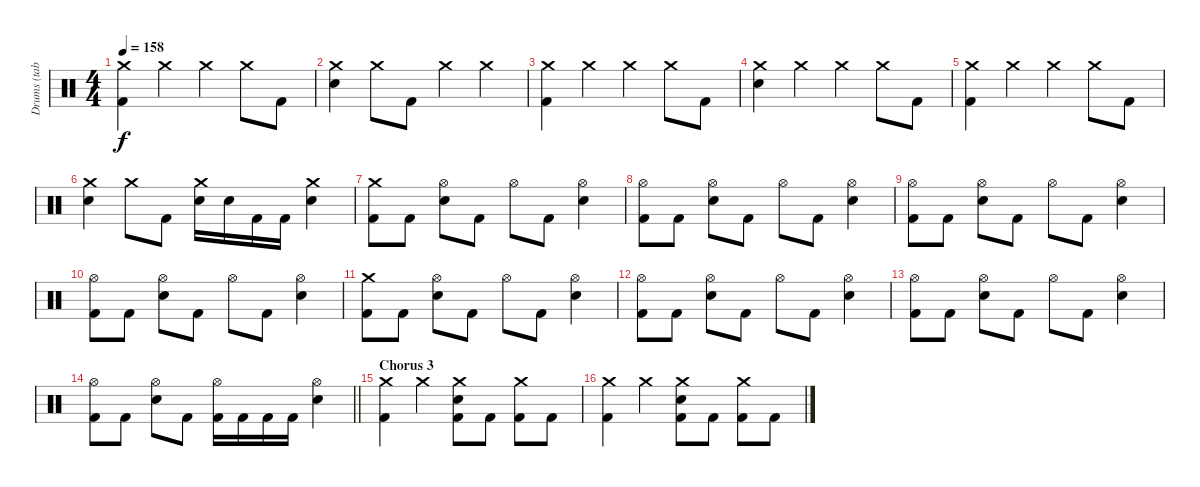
\track ("Drums (tabbed by bassman213293)" "Drums (tab") {instrument percussion}
\staff {score}
\articulation defaults
\ts (4 4)
\tempo 158
\clef neutral
\ks c
("Crash medium (hit)" "Kick (hit) 2").4{dy f} "Crash medium (hit)".4 "Crash medium (hit)".4 "Crash medium (hit)".8 "Kick (hit) 2".8 |
("Crash medium (hit)" "Electric Snare (hit)").4 "Crash medium (hit)".8 "Kick (hit) 2".8 "Crash medium (hit)".4 "Crash medium (hit)".4 |
("Crash medium (hit)" "Kick (hit) 2").4 "Crash medium (hit)".4 "Crash medium (hit)".4 "Crash medium (hit)".8 "Kick (hit) 2".8 |
("Crash medium (hit)" "Electric Snare (hit)").4 "Crash medium (hit)".4 "Crash medium (hit)".4 "Crash medium (hit)".8 "Kick (hit) 2".8 |
("Crash medium (hit)" "Kick (hit) 2").4 "Crash medium (hit)".4 "Crash medium (hit)".4 "Crash medium (hit)".8 "Kick (hit) 2".8 |
("Crash medium (hit)" "Electric Snare (hit)").4 "Crash medium (hit)".8 "Kick (hit) 2".8 ("Crash medium (hit)" "Electric Snare (hit)").16 "Electric Snare (hit)".16 "Kick (hit) 2".16 "Kick (hit) 2".16 ("Crash medium (hit)" "Electric Snare (hit)").4 |
("Crash medium (hit)" "Kick (hit) 2").8 "Kick (hit) 2".8 ("Hi-Hat (open)" "Electric Snare (hit)").8 "Kick (hit) 2".8 "Hi-Hat (open)".8 "Kick (hit) 2".8 ("Hi-Hat (open)" "Electric Snare (hit)").4 |
("Hi-Hat (open)" "Kick (hit) 2").8 "Kick (hit) 2".8 ("Hi-Hat (open)" "Electric Snare (hit)").8 "Kick (hit) 2".8 "Hi-Hat (open)".8 "Kick (hit) 2".8 ("Hi-Hat (open)" "Electric Snare (hit)").4 |
("Hi-Hat (open)" "Kick (hit) 2").8 "Kick (hit) 2".8 ("Hi-Hat (open)" "Electric Snare (hit)").8 "Kick (hit) 2".8 "Hi-Hat (open)".8 "Kick (hit) 2".8 ("Hi-Hat (open)" "Electric Snare (hit)").4 |
("Hi-Hat (open)" "Kick (hit) 2").8 "Kick (hit) 2".8 ("Hi-Hat (open)" "Electric Snare (hit)").8 "Kick (hit) 2".8 "Hi-Hat (open)".8 "Kick (hit) 2".8 ("Hi-Hat (open)" "Electric Snare (hit)").4 |
("Crash medium (hit)" "Kick (hit) 2").8 "Kick (hit) 2".8 ("Hi-Hat (open)" "Electric Snare (hit)").8 "Kick (hit) 2".8 "Hi-Hat (open)".8 "Kick (hit) 2".8 ("Hi-Hat (open)" "Electric Snare (hit)").4 |
("Hi-Hat (open)" "Kick (hit) 2").8 "Kick (hit) 2".8 ("Hi-Hat (open)" "Electric Snare (hit)").8 "Kick (hit) 2".8 "Hi-Hat (open)".8 "Kick (hit) 2".8 ("Hi-Hat (open)" "Electric Snare (hit)").4 |
("Hi-Hat (open)" "Kick (hit) 2").8 "Kick (hit) 2".8 ("Hi-Hat (open)" "Electric Snare (hit)").8 "Kick (hit) 2".8 "Hi-Hat (open)".8 "Kick (hit) 2".8 ("Hi-Hat (open)" "Electric Snare (hit)").4 |
\barLineRight lightlight
("Hi-Hat (open)" "Kick (hit) 2").8 "Kick (hit) 2".8 ("Hi-Hat (open)" "Electric Snare (hit)").8 "Kick (hit) 2".8 ("Hi-Hat (open)" "Kick (hit) 2").16 "Kick (hit) 2".16 "Kick (hit) 2".16 "Kick (hit) 2".16 ("Hi-Hat (open)" "Electric Snare (hit)").4 |
\section ("" "Chorus 3")
("Crash medium (hit)" "Kick (hit) 2").4 "Crash medium (hit)".4 ("Crash medium (hit)" "Electric Snare (hit)" "Kick (hit) 2").8 "Kick (hit) 2".8 ("Crash medium (hit)" "Kick (hit) 2").8 "Kick (hit) 2".8 |
("Crash medium (hit)" "Kick (hit) 2").4 "Crash medium (hit)".4 ("Crash medium (hit)" "Electric Snare (hit)" "Kick (hit) 2").8 "Kick (hit) 2".8 ("Crash medium (hit)" "Kick (hit) 2").8 "Kick (hit) 2".8
